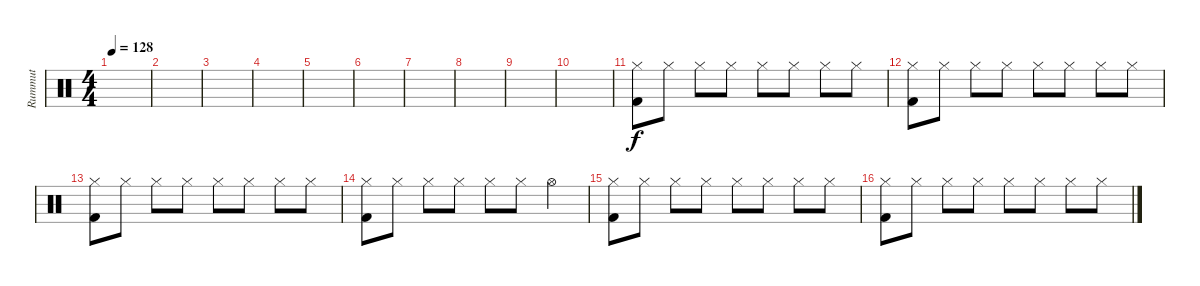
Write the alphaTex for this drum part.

\track ("Rummut" "Rummut") {instrument percussion}
\staff {score}
\articulation defaults
\ts (4 4)
\tempo 128
\clef neutral
\ks aminor
|
|
|
|
|
|
|
|
|
|
("Hi-Hat (closed)" "Kick (hit) 2").8 "Hi-Hat (closed)".8 "Hi-Hat (closed)".8 "Hi-Hat (closed)".8 "Hi-Hat (closed)".8 "Hi-Hat (closed)".8 "Hi-Hat (closed)".8 "Hi-Hat (closed)".8 |
("Hi-Hat (closed)" "Kick (hit) 2").8 "Hi-Hat (closed)".8 "Hi-Hat (closed)".8 "Hi-Hat (closed)".8 "Hi-Hat (closed)".8 "Hi-Hat (closed)".8 "Hi-Hat (closed)".8 "Hi-Hat (closed)".8 |
("Hi-Hat (closed)" "Kick (hit) 2").8 "Hi-Hat (closed)".8 "Hi-Hat (closed)".8 "Hi-Hat (closed)".8 "Hi-Hat (closed)".8 "Hi-Hat (closed)".8 "Hi-Hat (closed)".8 "Hi-Hat (closed)".8 |
("Hi-Hat (closed)" "Kick (hit) 2").8 "Hi-Hat (closed)".8 "Hi-Hat (closed)".8 "Hi-Hat (closed)".8 "Hi-Hat (closed)".8 "Hi-Hat (closed)".8 "Hi-Hat (open)".4 |
("Hi-Hat (closed)" "Kick (hit) 2").8 "Hi-Hat (closed)".8 "Hi-Hat (closed)".8 "Hi-Hat (closed)".8 "Hi-Hat (closed)".8 "Hi-Hat (closed)".8 "Hi-Hat (closed)".8 "Hi-Hat (closed)".8 |
("Hi-Hat (closed)" "Kick (hit) 2").8 "Hi-Hat (closed)".8 "Hi-Hat (closed)".8 "Hi-Hat (closed)".8 "Hi-Hat (closed)".8 "Hi-Hat (closed)".8 "Hi-Hat (closed)".8 "Hi-Hat (closed)".8
